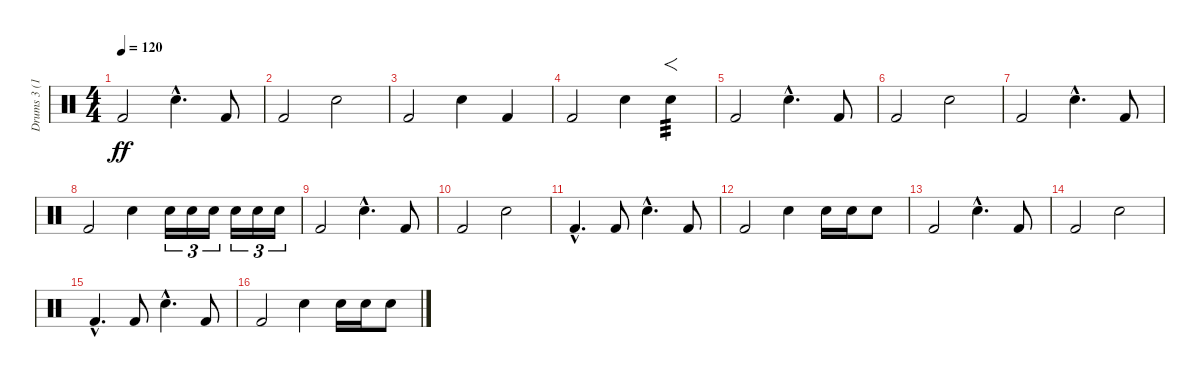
\track ("Drums 3 (16)" "Drums 3 (1") {instrument percussion}
\staff {score}
\articulation defaults
\ts (4 4)
\tempo 120
\clef neutral
\ks c "Kick (hit) 2".2{dy ff} "Snare (hit) 2"{hac}.4{d} "Kick (hit) 2".8
|
"Kick (hit) 2".2 "Snare (hit) 2".2 |
"Kick (hit) 2".2 "Snare (hit) 2".4 "Kick (hit) 2".4 |
"Kick (hit) 2".2 "Snare (hit) 2".4 "Snare (hit) 2".4{f tp 3} |
"Kick (hit) 2".2 "Snare (hit) 2"{hac}.4{d} "Kick (hit) 2".8 |
"Kick (hit) 2".2 "Snare (hit) 2".2 |
"Kick (hit) 2".2 "Snare (hit) 2"{hac}.4{d} "Kick (hit) 2".8 |
"Kick (hit) 2".2 "Snare (hit) 2".4 "Snare (hit) 2".16{tu (3 2)} "Snare (hit) 2".16{tu (3 2)} "Snare (hit) 2".16{tu (3 2)} "Snare (hit) 2".16{tu (3 2)} "Snare (hit) 2".16{tu (3 2)} "Snare (hit) 2".16{tu (3 2)} |
"Kick (hit) 2".2 "Snare (hit) 2"{hac}.4{d} "Kick (hit) 2".8 |
"Kick (hit) 2".2 "Snare (hit) 2".2 |
"Kick (hit) 2"{hac}.4{d} "Kick (hit) 2".8 "Snare (hit) 2"{hac}.4{d} "Kick (hit) 2".8 |
"Kick (hit) 2".2 "Snare (hit) 2".4 "Snare (hit) 2".16 "Snare (hit) 2".16 "Snare (hit) 2".8 |
"Kick (hit) 2".2 "Snare (hit) 2"{hac}.4{d} "Kick (hit) 2".8 |
"Kick (hit) 2".2 "Snare (hit) 2".2 |
"Kick (hit) 2"{hac}.4{d} "Kick (hit) 2".8 "Snare (hit) 2"{hac}.4{d} "Kick (hit) 2".8 |
"Kick (hit) 2".2 "Snare (hit) 2".4 "Snare (hit) 2".16 "Snare (hit) 2".16 "Snare (hit) 2".8
